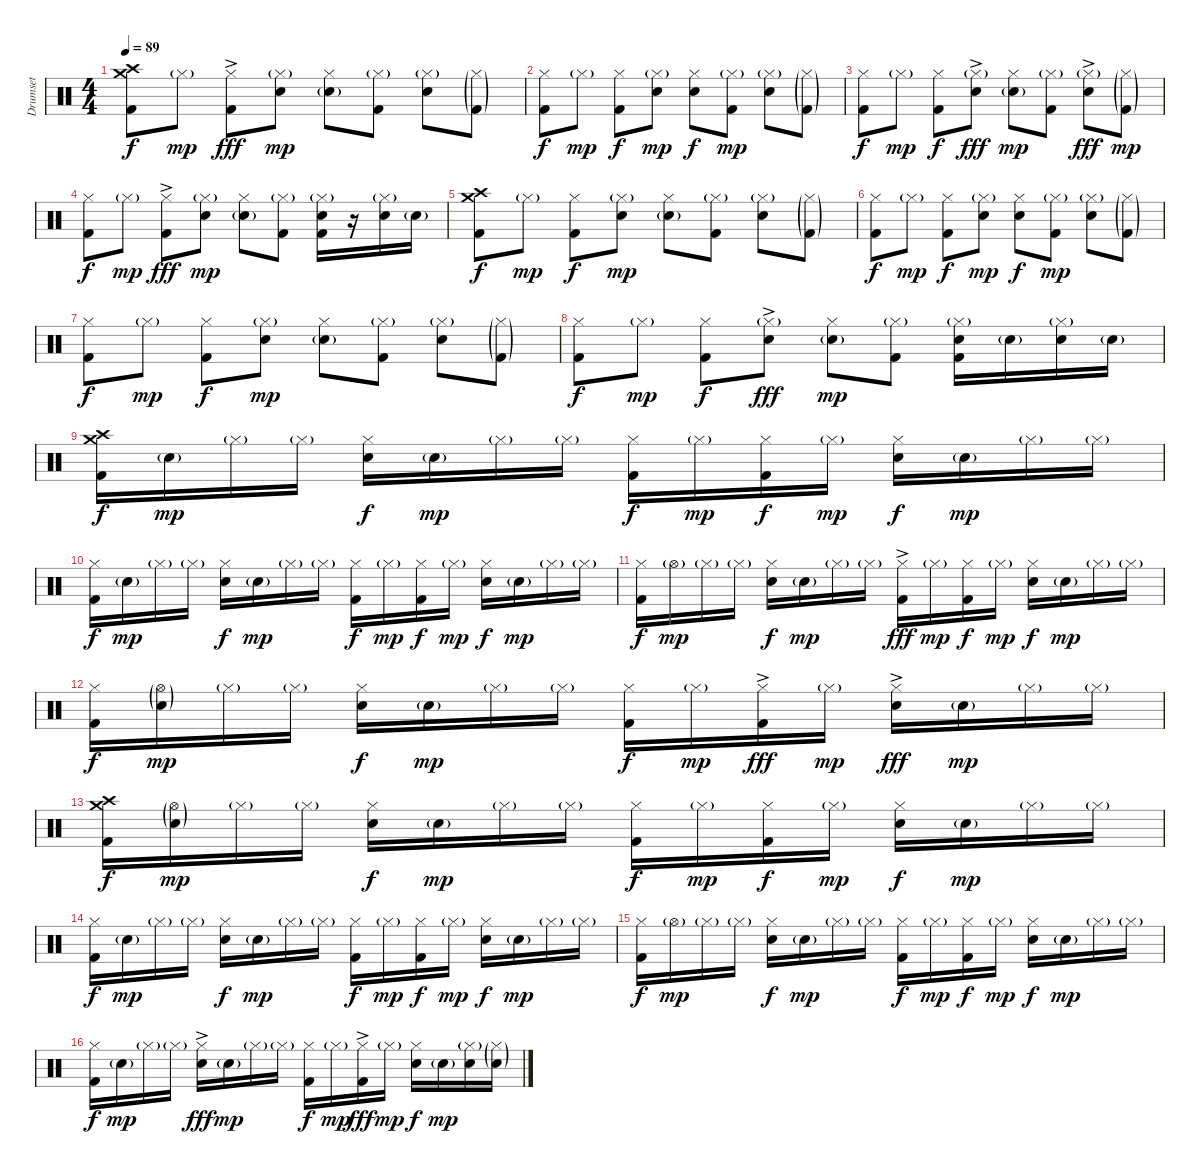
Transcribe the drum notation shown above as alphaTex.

\track ("Drumset" "Drumset") {instrument percussion}
\staff {score}
\articulation defaults
\ts (4 4)
\tempo 89
\clef neutral
\ks c
("Crash high (hit)" "Crash medium (hit)" "Kick (hit) 2").8{dy f} "Hi-Hat (closed)"{g}.8{dy mp} ("Hi-Hat (closed)" "Kick (hit) 2"{ac}).8{dy fff} ("Hi-Hat (closed)"{g} "Electric Snare (hit)").8{dy mp} ("Hi-Hat (closed)" "Snare (hit) 2"{g}).8 ("Hi-Hat (closed)"{g} "Kick (hit) 2").8 ("Hi-Hat (closed)"{g} "Electric Snare (hit)").8 ("Hi-Hat (closed)"{g} "Kick (hit) 2"{g}).8 |
("Hi-Hat (closed)" "Kick (hit) 2").8{dy f} "Hi-Hat (closed)"{g}.8{dy mp} ("Hi-Hat (closed)" "Kick (hit) 2").8{dy f} ("Hi-Hat (closed)"{g} "Electric Snare (hit)").8{dy mp} ("Hi-Hat (closed)" "Snare (hit) 2").8{dy f} ("Hi-Hat (closed)"{g} "Kick (hit) 2").8{dy mp} ("Hi-Hat (closed)"{g} "Electric Snare (hit)").8 ("Hi-Hat (closed)"{g} "Kick (hit) 2"{g}).8 |
("Hi-Hat (closed)" "Kick (hit) 2").8{dy f} "Hi-Hat (closed)"{g}.8{dy mp} ("Hi-Hat (closed)" "Kick (hit) 2").8{dy f} ("Hi-Hat (closed)"{g} "Electric Snare (hit)"{ac}).8{dy fff} ("Hi-Hat (closed)" "Snare (hit) 2"{g}).8{dy mp} ("Hi-Hat (closed)"{g} "Kick (hit) 2").8 ("Hi-Hat (closed)"{g} "Electric Snare (hit)"{ac}).8{dy fff} ("Hi-Hat (closed)"{g} "Kick (hit) 2"{g}).8{dy mp} |
("Hi-Hat (closed)" "Kick (hit) 2").8{dy f} "Hi-Hat (closed)"{g}.8{dy mp} ("Hi-Hat (closed)" "Kick (hit) 2"{ac}).8{dy fff} ("Hi-Hat (closed)"{g} "Electric Snare (hit)").8{dy mp} ("Hi-Hat (closed)" "Snare (hit) 2"{g}).8 ("Hi-Hat (closed)"{g} "Kick (hit) 2").8 ("Hi-Hat (closed)"{g} "Snare (hit) 2" "Kick (hit) 2").16 r.16 ("Hi-Hat (closed)"{g} "Electric Snare (hit)").16 "Snare (hit) 2"{g}.16 |
("Crash high (hit)" "Crash medium (hit)" "Kick (hit) 2").8{dy f} "Hi-Hat (closed)"{g}.8{dy mp} ("Hi-Hat (closed)" "Kick (hit) 2").8{dy f} ("Hi-Hat (closed)"{g} "Electric Snare (hit)").8{dy mp} ("Hi-Hat (closed)" "Snare (hit) 2"{g}).8 ("Hi-Hat (closed)"{g} "Kick (hit) 2").8 ("Hi-Hat (closed)"{g} "Electric Snare (hit)").8 ("Hi-Hat (closed)"{g} "Kick (hit) 2"{g}).8 |
("Hi-Hat (closed)" "Kick (hit) 2").8{dy f} "Hi-Hat (closed)"{g}.8{dy mp} ("Hi-Hat (closed)" "Kick (hit) 2").8{dy f} ("Hi-Hat (closed)"{g} "Electric Snare (hit)").8{dy mp} ("Hi-Hat (closed)" "Snare (hit) 2").8{dy f} ("Hi-Hat (closed)"{g} "Kick (hit) 2").8{dy mp} ("Hi-Hat (closed)"{g} "Electric Snare (hit)").8 ("Hi-Hat (closed)"{g} "Kick (hit) 2"{g}).8 |
("Hi-Hat (closed)" "Kick (hit) 2").8{dy f} "Hi-Hat (closed)"{g}.8{dy mp} ("Hi-Hat (closed)" "Kick (hit) 2").8{dy f} ("Hi-Hat (closed)"{g} "Electric Snare (hit)").8{dy mp} ("Hi-Hat (closed)" "Snare (hit) 2"{g}).8 ("Hi-Hat (closed)"{g} "Kick (hit) 2").8 ("Hi-Hat (closed)"{g} "Electric Snare (hit)").8 ("Hi-Hat (closed)"{g} "Kick (hit) 2"{g}).8 |
("Hi-Hat (closed)" "Kick (hit) 2").8{dy f} "Hi-Hat (closed)"{g}.8{dy mp} ("Hi-Hat (closed)" "Kick (hit) 2").8{dy f} ("Hi-Hat (closed)"{g} "Electric Snare (hit)"{ac}).8{dy fff} ("Hi-Hat (closed)" "Snare (hit) 2"{g}).8{dy mp} ("Hi-Hat (closed)"{g} "Kick (hit) 2").8 ("Hi-Hat (closed)"{g} "Snare (hit) 2" "Kick (hit) 2").16 "Electric Snare (hit)"{g}.16 ("Hi-Hat (closed)"{g} "Electric Snare (hit)").16 "Snare (hit) 2"{g}.16 |
("Crash high (hit)" "Crash medium (hit)" "Kick (hit) 2").16{dy f} "Snare (hit) 2"{g}.16{dy mp} "Hi-Hat (closed)"{g}.16 "Hi-Hat (closed)"{g}.16 ("Hi-Hat (closed)" "Electric Snare (hit)").16{dy f} "Snare (hit) 2"{g}.16{dy mp} "Hi-Hat (closed)"{g}.16 "Hi-Hat (closed)"{g}.16 ("Hi-Hat (closed)" "Kick (hit) 2").16{dy f} "Hi-Hat (closed)"{g}.16{dy mp} ("Hi-Hat (closed)" "Kick (hit) 2").16{dy f} "Hi-Hat (closed)"{g}.16{dy mp} ("Hi-Hat (closed)" "Electric Snare (hit)").16{dy f} "Snare (hit) 2"{g}.16{dy mp} "Hi-Hat (closed)"{g}.16 "Hi-Hat (closed)"{g}.16 |
("Hi-Hat (closed)" "Kick (hit) 2").16{dy f} "Snare (hit) 2"{g}.16{dy mp} "Hi-Hat (closed)"{g}.16 "Hi-Hat (closed)"{g}.16 ("Hi-Hat (closed)" "Electric Snare (hit)").16{dy f} "Snare (hit) 2"{g}.16{dy mp} "Hi-Hat (closed)"{g}.16 "Hi-Hat (closed)"{g}.16 ("Hi-Hat (closed)" "Kick (hit) 2").16{dy f} "Hi-Hat (closed)"{g}.16{dy mp} ("Hi-Hat (closed)" "Kick (hit) 2").16{dy f} "Hi-Hat (closed)"{g}.16{dy mp} ("Hi-Hat (closed)" "Electric Snare (hit)").16{dy f} "Snare (hit) 2"{g}.16{dy mp} "Hi-Hat (closed)"{g}.16 "Hi-Hat (closed)"{g}.16 |
("Hi-Hat (closed)" "Kick (hit) 2").16{dy f} "Hi-Hat (open)"{g}.16{dy mp} "Hi-Hat (closed)"{g}.16 "Hi-Hat (closed)"{g}.16 ("Hi-Hat (closed)" "Electric Snare (hit)").16{dy f} "Snare (hit) 2"{g}.16{dy mp} "Hi-Hat (closed)"{g}.16 "Hi-Hat (closed)"{g}.16 ("Hi-Hat (closed)"{ac} "Kick (hit) 2").16{dy fff} "Hi-Hat (closed)"{g}.16{dy mp} ("Hi-Hat (closed)" "Kick (hit) 2").16{dy f} "Hi-Hat (closed)"{g}.16{dy mp} ("Hi-Hat (closed)" "Electric Snare (hit)").16{dy f} "Snare (hit) 2"{g}.16{dy mp} "Hi-Hat (closed)"{g}.16 "Hi-Hat (closed)"{g}.16 |
("Hi-Hat (closed)" "Kick (hit) 2").16{dy f} ("Hi-Hat (open)"{g} "Snare (hit) 2"{g}).16{dy mp} "Hi-Hat (closed)"{g}.16 "Hi-Hat (closed)"{g}.16 ("Hi-Hat (closed)" "Electric Snare (hit)").16{dy f} "Snare (hit) 2"{g}.16{dy mp} "Hi-Hat (closed)"{g}.16 "Hi-Hat (closed)"{g}.16 ("Hi-Hat (closed)" "Kick (hit) 2").16{dy f} "Hi-Hat (closed)"{g}.16{dy mp} ("Hi-Hat (closed)" "Kick (hit) 2"{ac}).16{dy fff} "Hi-Hat (closed)"{g}.16{dy mp} ("Hi-Hat (closed)" "Electric Snare (hit)"{ac}).16{dy fff} "Snare (hit) 2"{g}.16{dy mp} "Hi-Hat (closed)"{g}.16 "Hi-Hat (closed)"{g}.16 |
("Crash high (hit)" "Crash medium (hit)" "Kick (hit) 2").16{dy f} ("Hi-Hat (open)"{g} "Snare (hit) 2"{g}).16{dy mp} "Hi-Hat (closed)"{g}.16 "Hi-Hat (closed)"{g}.16 ("Hi-Hat (closed)" "Electric Snare (hit)").16{dy f} "Snare (hit) 2"{g}.16{dy mp} "Hi-Hat (closed)"{g}.16 "Hi-Hat (closed)"{g}.16 ("Hi-Hat (closed)" "Kick (hit) 2").16{dy f} "Hi-Hat (closed)"{g}.16{dy mp} ("Hi-Hat (closed)" "Kick (hit) 2").16{dy f} "Hi-Hat (closed)"{g}.16{dy mp} ("Hi-Hat (closed)" "Electric Snare (hit)").16{dy f} "Snare (hit) 2"{g}.16{dy mp} "Hi-Hat (closed)"{g}.16 "Hi-Hat (closed)"{g}.16 |
("Hi-Hat (closed)" "Kick (hit) 2").16{dy f} "Snare (hit) 2"{g}.16{dy mp} "Hi-Hat (closed)"{g}.16 "Hi-Hat (closed)"{g}.16 ("Hi-Hat (closed)" "Electric Snare (hit)").16{dy f} "Snare (hit) 2"{g}.16{dy mp} "Hi-Hat (closed)"{g}.16 "Hi-Hat (closed)"{g}.16 ("Hi-Hat (closed)" "Kick (hit) 2").16{dy f} "Hi-Hat (closed)"{g}.16{dy mp} ("Hi-Hat (closed)" "Kick (hit) 2").16{dy f} "Hi-Hat (closed)"{g}.16{dy mp} ("Hi-Hat (closed)" "Electric Snare (hit)").16{dy f} "Snare (hit) 2"{g}.16{dy mp} "Hi-Hat (closed)"{g}.16 "Hi-Hat (closed)"{g}.16 |
("Hi-Hat (closed)" "Kick (hit) 2").16{dy f} "Hi-Hat (open)"{g}.16{dy mp} "Hi-Hat (closed)"{g}.16 "Hi-Hat (closed)"{g}.16 ("Hi-Hat (closed)" "Electric Snare (hit)").16{dy f} "Snare (hit) 2"{g}.16{dy mp} "Hi-Hat (closed)"{g}.16 "Hi-Hat (closed)"{g}.16 ("Hi-Hat (closed)" "Kick (hit) 2").16{dy f} "Hi-Hat (closed)"{g}.16{dy mp} ("Hi-Hat (closed)" "Kick (hit) 2").16{dy f} "Hi-Hat (closed)"{g}.16{dy mp} ("Hi-Hat (closed)" "Electric Snare (hit)").16{dy f} "Snare (hit) 2"{g}.16{dy mp} "Hi-Hat (closed)"{g}.16 "Hi-Hat (closed)"{g}.16 |
("Hi-Hat (closed)" "Kick (hit) 2").16{dy f} "Snare (hit) 2"{g}.16{dy mp} "Hi-Hat (closed)"{g}.16 "Hi-Hat (closed)"{g}.16 ("Hi-Hat (closed)" "Electric Snare (hit)"{ac}).16{dy fff} "Snare (hit) 2"{g}.16{dy mp} "Hi-Hat (closed)"{g}.16 "Hi-Hat (closed)"{g}.16 ("Hi-Hat (closed)" "Kick (hit) 2").16{dy f} "Hi-Hat (closed)"{g}.16{dy mp} ("Hi-Hat (closed)" "Kick (hit) 2"{ac}).16{dy fff} "Hi-Hat (closed)"{g}.16{dy mp} ("Hi-Hat (closed)" "Electric Snare (hit)").16{dy f} "Snare (hit) 2"{g}.16{dy mp} ("Hi-Hat (closed)"{g} "Electric Snare (hit)").16 ("Hi-Hat (closed)"{g} "Snare (hit) 2"{g}).16
